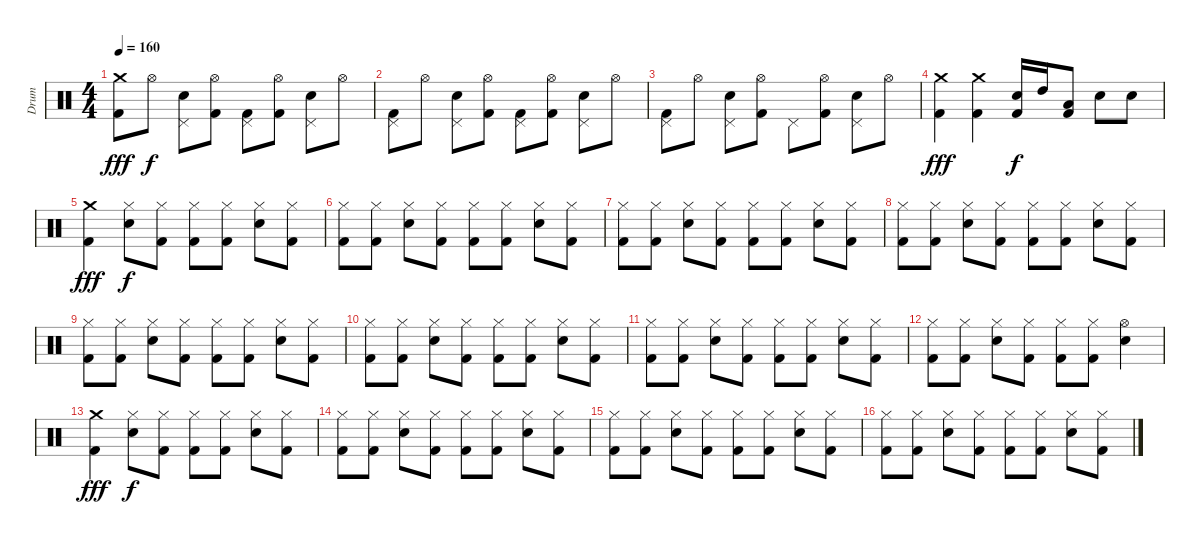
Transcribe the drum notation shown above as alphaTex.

\track ("Drum" "Drum") {instrument percussion}
\staff {score}
\articulation defaults
\ts (4 4)
\tempo 160
\clef neutral
\ks c
("Crash medium (hit)" "Kick (hit) 2").8{dy fff} "Hi-Hat (open)".8{dy f} ("Pedal Hi-Hat (hit)" "Snare (hit) 2").8 ("Hi-Hat (open)" "Kick (hit) 2").8 ("Pedal Hi-Hat (hit)" "Kick (hit) 2").8 ("Hi-Hat (open)" "Kick (hit) 2").8 ("Pedal Hi-Hat (hit)" "Snare (hit) 2").8 "Hi-Hat (open)".8 |
("Pedal Hi-Hat (hit)" "Kick (hit) 2").8 "Hi-Hat (open)".8 ("Pedal Hi-Hat (hit)" "Snare (hit) 2").8 ("Hi-Hat (open)" "Kick (hit) 2").8 ("Pedal Hi-Hat (hit)" "Kick (hit) 2").8 ("Hi-Hat (open)" "Kick (hit) 2").8 ("Pedal Hi-Hat (hit)" "Snare (hit) 2").8 "Hi-Hat (open)".8 |
("Pedal Hi-Hat (hit)" "Kick (hit) 2").8 "Hi-Hat (open)".8 ("Pedal Hi-Hat (hit)" "Snare (hit) 2").8 ("Hi-Hat (open)" "Kick (hit) 2").8 "Pedal Hi-Hat (hit)".8 ("Hi-Hat (open)" "Kick (hit) 2").8 ("Pedal Hi-Hat (hit)" "Snare (hit) 2").8 "Hi-Hat (open)".8 |
("Crash medium (hit)" "Kick (hit) 2").4{dy fff} ("Crash medium (hit)" "Kick (hit) 2").4 ("Snare (hit) 2" "Kick (hit) 2").16{dy f} "High Tom (hit)".16 ("Low Tom (hit)" "Kick (hit) 2").8 "Snare (hit) 2".8 "Snare (hit) 2".8 |
("Crash medium (hit)" "Kick (hit) 2").4{dy fff} ("Hi-Hat (closed)" "Snare (hit) 2").8{dy f} ("Hi-Hat (closed)" "Kick (hit) 2").8 ("Hi-Hat (closed)" "Kick (hit) 2").8 ("Hi-Hat (closed)" "Kick (hit) 2").8 ("Hi-Hat (closed)" "Snare (hit) 2").8 ("Hi-Hat (closed)" "Kick (hit) 2").8 |
("Hi-Hat (closed)" "Kick (hit) 2").8 ("Hi-Hat (closed)" "Kick (hit) 2").8 ("Hi-Hat (closed)" "Snare (hit) 2").8 ("Hi-Hat (closed)" "Kick (hit) 2").8 ("Hi-Hat (closed)" "Kick (hit) 2").8 ("Hi-Hat (closed)" "Kick (hit) 2").8 ("Hi-Hat (closed)" "Snare (hit) 2").8 ("Hi-Hat (closed)" "Kick (hit) 2").8 |
("Hi-Hat (closed)" "Kick (hit) 2").8 ("Hi-Hat (closed)" "Kick (hit) 2").8 ("Hi-Hat (closed)" "Snare (hit) 2").8 ("Hi-Hat (closed)" "Kick (hit) 2").8 ("Hi-Hat (closed)" "Kick (hit) 2").8 ("Hi-Hat (closed)" "Kick (hit) 2").8 ("Hi-Hat (closed)" "Snare (hit) 2").8 ("Hi-Hat (closed)" "Kick (hit) 2").8 |
("Hi-Hat (closed)" "Kick (hit) 2").8 ("Hi-Hat (closed)" "Kick (hit) 2").8 ("Hi-Hat (closed)" "Snare (hit) 2").8 ("Hi-Hat (closed)" "Kick (hit) 2").8 ("Hi-Hat (closed)" "Kick (hit) 2").8 ("Hi-Hat (closed)" "Kick (hit) 2").8 ("Hi-Hat (closed)" "Snare (hit) 2").8 ("Hi-Hat (closed)" "Kick (hit) 2").8 |
("Hi-Hat (closed)" "Kick (hit) 2").8 ("Hi-Hat (closed)" "Kick (hit) 2").8 ("Hi-Hat (closed)" "Snare (hit) 2").8 ("Hi-Hat (closed)" "Kick (hit) 2").8 ("Hi-Hat (closed)" "Kick (hit) 2").8 ("Hi-Hat (closed)" "Kick (hit) 2").8 ("Hi-Hat (closed)" "Snare (hit) 2").8 ("Hi-Hat (closed)" "Kick (hit) 2").8 |
("Hi-Hat (closed)" "Kick (hit) 2").8 ("Hi-Hat (closed)" "Kick (hit) 2").8 ("Hi-Hat (closed)" "Snare (hit) 2").8 ("Hi-Hat (closed)" "Kick (hit) 2").8 ("Hi-Hat (closed)" "Kick (hit) 2").8 ("Hi-Hat (closed)" "Kick (hit) 2").8 ("Hi-Hat (closed)" "Snare (hit) 2").8 ("Hi-Hat (closed)" "Kick (hit) 2").8 |
("Hi-Hat (closed)" "Kick (hit) 2").8 ("Hi-Hat (closed)" "Kick (hit) 2").8 ("Hi-Hat (closed)" "Snare (hit) 2").8 ("Hi-Hat (closed)" "Kick (hit) 2").8 ("Hi-Hat (closed)" "Kick (hit) 2").8 ("Hi-Hat (closed)" "Kick (hit) 2").8 ("Hi-Hat (closed)" "Snare (hit) 2").8 ("Hi-Hat (closed)" "Kick (hit) 2").8 |
("Hi-Hat (closed)" "Kick (hit) 2").8 ("Hi-Hat (closed)" "Kick (hit) 2").8 ("Hi-Hat (closed)" "Snare (hit) 2").8 ("Hi-Hat (closed)" "Kick (hit) 2").8 ("Hi-Hat (closed)" "Kick (hit) 2").8 ("Hi-Hat (closed)" "Kick (hit) 2").8 ("Hi-Hat (open)" "Snare (hit) 2").4 |
("Crash medium (hit)" "Kick (hit) 2").4{dy fff} ("Hi-Hat (closed)" "Snare (hit) 2").8{dy f} ("Hi-Hat (closed)" "Kick (hit) 2").8 ("Hi-Hat (closed)" "Kick (hit) 2").8 ("Hi-Hat (closed)" "Kick (hit) 2").8 ("Hi-Hat (closed)" "Snare (hit) 2").8 ("Hi-Hat (closed)" "Kick (hit) 2").8 |
("Hi-Hat (closed)" "Kick (hit) 2").8 ("Hi-Hat (closed)" "Kick (hit) 2").8 ("Hi-Hat (closed)" "Snare (hit) 2").8 ("Hi-Hat (closed)" "Kick (hit) 2").8 ("Hi-Hat (closed)" "Kick (hit) 2").8 ("Hi-Hat (closed)" "Kick (hit) 2").8 ("Hi-Hat (closed)" "Snare (hit) 2").8 ("Hi-Hat (closed)" "Kick (hit) 2").8 |
("Hi-Hat (closed)" "Kick (hit) 2").8 ("Hi-Hat (closed)" "Kick (hit) 2").8 ("Hi-Hat (closed)" "Snare (hit) 2").8 ("Hi-Hat (closed)" "Kick (hit) 2").8 ("Hi-Hat (closed)" "Kick (hit) 2").8 ("Hi-Hat (closed)" "Kick (hit) 2").8 ("Hi-Hat (closed)" "Snare (hit) 2").8 ("Hi-Hat (closed)" "Kick (hit) 2").8 |
("Hi-Hat (closed)" "Kick (hit) 2").8 ("Hi-Hat (closed)" "Kick (hit) 2").8 ("Hi-Hat (closed)" "Snare (hit) 2").8 ("Hi-Hat (closed)" "Kick (hit) 2").8 ("Hi-Hat (closed)" "Kick (hit) 2").8 ("Hi-Hat (closed)" "Kick (hit) 2").8 ("Hi-Hat (closed)" "Snare (hit) 2").8 ("Hi-Hat (closed)" "Kick (hit) 2").8
